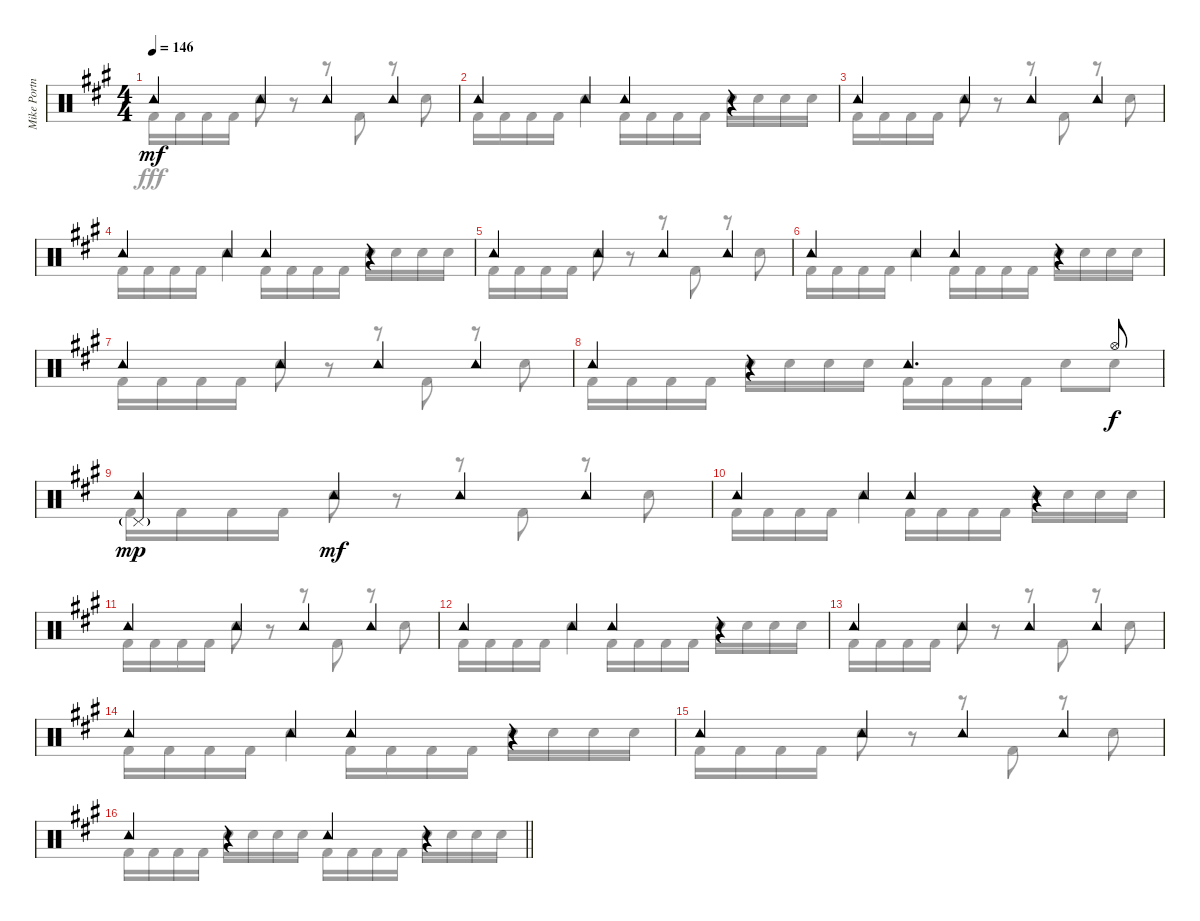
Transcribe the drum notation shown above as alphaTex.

\track ("Mike Portnoy Drums" "Mike Portn") {instrument percussion}
\staff {score}
\articulation defaults
\voice
\ts (4 4)
\tempo 146
\clef neutral
\ks f#minor "Tambourine (hit)".4{dy mf} "Tambourine (hit)".4 "Tambourine (hit)".4 "Tambourine (hit)".4
|
"Tambourine (hit)".4 "Tambourine (hit)".4 "Tambourine (hit)".4 r.4 |
"Tambourine (hit)".4 "Tambourine (hit)".4 "Tambourine (hit)".4 "Tambourine (hit)".4 |
"Tambourine (hit)".4 "Tambourine (hit)".4 "Tambourine (hit)".4 r.4 |
"Tambourine (hit)".4 "Tambourine (hit)".4 "Tambourine (hit)".4 "Tambourine (hit)".4 |
"Tambourine (hit)".4 "Tambourine (hit)".4 "Tambourine (hit)".4 r.4 |
"Tambourine (hit)".4 "Tambourine (hit)".4 "Tambourine (hit)".4 "Tambourine (hit)".4 |
"Tambourine (hit)".4 r.4 "Tambourine (hit)".4{d} "Hi-Hat (open)".8{dy f} |
("Tambourine (hit)" "Pedal Hi-Hat (hit)"{g}).4{dy mp} "Tambourine (hit)".4{dy mf} "Tambourine (hit)".4 "Tambourine (hit)".4 |
"Tambourine (hit)".4 "Tambourine (hit)".4 "Tambourine (hit)".4 r.4 |
"Tambourine (hit)".4 "Tambourine (hit)".4 "Tambourine (hit)".4 "Tambourine (hit)".4 |
"Tambourine (hit)".4 "Tambourine (hit)".4 "Tambourine (hit)".4 r.4 |
"Tambourine (hit)".4 "Tambourine (hit)".4 "Tambourine (hit)".4 "Tambourine (hit)".4 |
"Tambourine (hit)".4 "Tambourine (hit)".4 "Tambourine (hit)".4 r.4 |
"Tambourine (hit)".4 "Tambourine (hit)".4 "Tambourine (hit)".4 "Tambourine (hit)".4 |
\barLineRight lightlight "Tambourine (hit)".4
r.4 "Tambourine (hit)".4 r.4
\voice
\clef neutral
\ottava regular
\simile none
\ks f#minor "Kick (hit) 2".16{dy fff} "Kick (hit) 2".16 "Kick (hit) 2".16 "Kick (hit) 2".16 "Snare (hit) 2".8
r.8 r.8 "Kick (hit) 2".8 r.8 "Snare (hit) 2".8 |
"Kick (hit) 2".16 "Kick (hit) 2".16 "Kick (hit) 2".16 "Kick (hit) 2".16 "Snare (hit) 2".4 "Kick (hit) 2".16 "Kick (hit) 2".16 "Kick (hit) 2".16 "Kick (hit) 2".16 "Snare (hit) 2".16 "Snare (hit) 2".16 "Snare (hit) 2".16 "Snare (hit) 2".16 |
"Kick (hit) 2".16 "Kick (hit) 2".16 "Kick (hit) 2".16 "Kick (hit) 2".16 "Snare (hit) 2".8 r.8 r.8 "Kick (hit) 2".8 r.8 "Snare (hit) 2".8 |
"Kick (hit) 2".16 "Kick (hit) 2".16 "Kick (hit) 2".16 "Kick (hit) 2".16 "Snare (hit) 2".4 "Kick (hit) 2".16 "Kick (hit) 2".16 "Kick (hit) 2".16 "Kick (hit) 2".16 "Snare (hit) 2".16 "Snare (hit) 2".16 "Snare (hit) 2".16 "Snare (hit) 2".16 |
"Kick (hit) 2".16 "Kick (hit) 2".16 "Kick (hit) 2".16 "Kick (hit) 2".16 "Snare (hit) 2".8 r.8 r.8 "Kick (hit) 2".8 r.8 "Snare (hit) 2".8 |
"Kick (hit) 2".16 "Kick (hit) 2".16 "Kick (hit) 2".16 "Kick (hit) 2".16 "Snare (hit) 2".4 "Kick (hit) 2".16 "Kick (hit) 2".16 "Kick (hit) 2".16 "Kick (hit) 2".16 "Snare (hit) 2".16 "Snare (hit) 2".16 "Snare (hit) 2".16 "Snare (hit) 2".16 |
"Kick (hit) 2".16 "Kick (hit) 2".16 "Kick (hit) 2".16 "Kick (hit) 2".16 "Snare (hit) 2".8 r.8 r.8 "Kick (hit) 2".8 r.8 "Snare (hit) 2".8 |
"Kick (hit) 2".16 "Kick (hit) 2".16 "Kick (hit) 2".16 "Kick (hit) 2".16 "Snare (hit) 2".16 "Snare (hit) 2".16 "Snare (hit) 2".16 "Snare (hit) 2".16 "Kick (hit) 2".16 "Kick (hit) 2".16 "Kick (hit) 2".16 "Kick (hit) 2".16 "Snare (hit) 2".8 "Snare (hit) 2".8 |
"Kick (hit) 2".16 "Kick (hit) 2".16 "Kick (hit) 2".16 "Kick (hit) 2".16 "Snare (hit) 2".8 r.8 r.8 "Kick (hit) 2".8 r.8 "Snare (hit) 2".8 |
"Kick (hit) 2".16 "Kick (hit) 2".16 "Kick (hit) 2".16 "Kick (hit) 2".16 "Snare (hit) 2".4 "Kick (hit) 2".16 "Kick (hit) 2".16 "Kick (hit) 2".16 "Kick (hit) 2".16 "Snare (hit) 2".16 "Snare (hit) 2".16 "Snare (hit) 2".16 "Snare (hit) 2".16 |
"Kick (hit) 2".16 "Kick (hit) 2".16 "Kick (hit) 2".16 "Kick (hit) 2".16 "Snare (hit) 2".8 r.8 r.8 "Kick (hit) 2".8 r.8 "Snare (hit) 2".8 |
"Kick (hit) 2".16 "Kick (hit) 2".16 "Kick (hit) 2".16 "Kick (hit) 2".16 "Snare (hit) 2".4 "Kick (hit) 2".16 "Kick (hit) 2".16 "Kick (hit) 2".16 "Kick (hit) 2".16 "Snare (hit) 2".16 "Snare (hit) 2".16 "Snare (hit) 2".16 "Snare (hit) 2".16 |
"Kick (hit) 2".16 "Kick (hit) 2".16 "Kick (hit) 2".16 "Kick (hit) 2".16 "Snare (hit) 2".8 r.8 r.8 "Kick (hit) 2".8 r.8 "Snare (hit) 2".8 |
"Kick (hit) 2".16 "Kick (hit) 2".16 "Kick (hit) 2".16 "Kick (hit) 2".16 "Snare (hit) 2".4 "Kick (hit) 2".16 "Kick (hit) 2".16 "Kick (hit) 2".16 "Kick (hit) 2".16 "Snare (hit) 2".16 "Snare (hit) 2".16 "Snare (hit) 2".16 "Snare (hit) 2".16 |
"Kick (hit) 2".16 "Kick (hit) 2".16 "Kick (hit) 2".16 "Kick (hit) 2".16 "Snare (hit) 2".8 r.8 r.8 "Kick (hit) 2".8 r.8 "Snare (hit) 2".8 |
\barLineRight lightlight "Kick (hit) 2".16 "Kick (hit) 2".16 "Kick (hit) 2".16 "Kick (hit) 2".16 "Snare (hit) 2".16 "Snare (hit) 2".16 "Snare (hit) 2".16 "Snare (hit) 2".16 "Kick (hit) 2".16 "Kick (hit) 2".16 "Kick (hit) 2".16 "Kick (hit) 2".16 "Snare (hit) 2".16 "Snare (hit) 2".16 "Snare (hit) 2".16 "Snare (hit) 2".16
